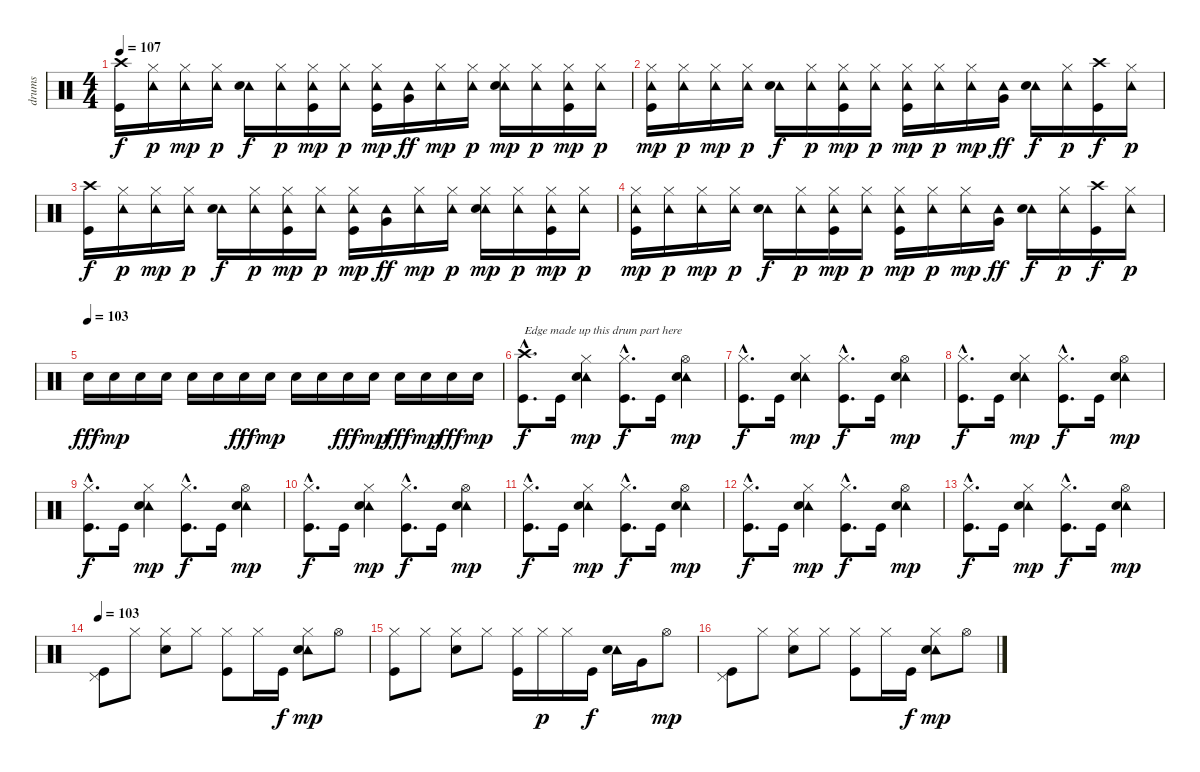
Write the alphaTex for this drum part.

\track ("drums" "drums") {instrument percussion}
\staff {score}
\articulation defaults
\ts (4 4)
\tempo 107
\clef neutral
\ks c
("Crash high (hit)" "Kick (hit)").16{dy f} ("Tambourine (hit)" "Hi-Hat (closed)").16{dy p} ("Tambourine (hit)" "Hi-Hat (closed)").16{dy mp} ("Tambourine (hit)" "Hi-Hat (closed)").16{dy p} ("Tambourine (hit)" "Electric Snare (hit)").16{dy f} ("Tambourine (hit)" "Hi-Hat (closed)").16{dy p} ("Tambourine (hit)" "Hi-Hat (closed)" "Kick (hit)").16{dy mp} ("Tambourine (hit)" "Hi-Hat (closed)").16{dy p} ("Tambourine (hit)" "Hi-Hat (closed)" "Kick (hit)").16{dy mp} ("Tambourine (hit)" "Very Low Tom (hit)").16{dy ff} ("Tambourine (hit)" "Hi-Hat (closed)").16{dy mp} ("Tambourine (hit)" "Hi-Hat (closed)").16{dy p} ("Tambourine (hit)" "Hi-Hat (closed)" "Electric Snare (hit)").16{dy mp} ("Tambourine (hit)" "Hi-Hat (closed)").16{dy p} ("Tambourine (hit)" "Hi-Hat (closed)" "Kick (hit)").16{dy mp} ("Tambourine (hit)" "Hi-Hat (closed)").16{dy p} |
("Tambourine (hit)" "Hi-Hat (closed)" "Kick (hit)").16{dy mp} ("Tambourine (hit)" "Hi-Hat (closed)").16{dy p} ("Tambourine (hit)" "Hi-Hat (closed)").16{dy mp} ("Tambourine (hit)" "Hi-Hat (closed)").16{dy p} ("Tambourine (hit)" "Electric Snare (hit)").16{dy f} ("Tambourine (hit)" "Hi-Hat (closed)").16{dy p} ("Tambourine (hit)" "Hi-Hat (closed)" "Kick (hit)").16{dy mp} ("Tambourine (hit)" "Hi-Hat (closed)").16{dy p} ("Tambourine (hit)" "Hi-Hat (closed)" "Kick (hit)").16{dy mp} ("Tambourine (hit)" "Hi-Hat (closed)").16{dy p} ("Tambourine (hit)" "Hi-Hat (closed)").16{dy mp} ("Tambourine (hit)" "Very Low Tom (hit)").16{dy ff} ("Tambourine (hit)" "Electric Snare (hit)").16{dy f} ("Tambourine (hit)" "Hi-Hat (closed)").16{dy p} ("Crash high (hit)" "Kick (hit)").16{dy f} ("Tambourine (hit)" "Hi-Hat (closed)").16{dy p} |
("Crash high (hit)" "Kick (hit)").16{dy f} ("Tambourine (hit)" "Hi-Hat (closed)").16{dy p} ("Tambourine (hit)" "Hi-Hat (closed)").16{dy mp} ("Tambourine (hit)" "Hi-Hat (closed)").16{dy p} ("Tambourine (hit)" "Electric Snare (hit)").16{dy f} ("Tambourine (hit)" "Hi-Hat (closed)").16{dy p} ("Tambourine (hit)" "Hi-Hat (closed)" "Kick (hit)").16{dy mp} ("Tambourine (hit)" "Hi-Hat (closed)").16{dy p} ("Tambourine (hit)" "Hi-Hat (closed)" "Kick (hit)").16{dy mp} ("Tambourine (hit)" "Very Low Tom (hit)").16{dy ff} ("Tambourine (hit)" "Hi-Hat (closed)").16{dy mp} ("Tambourine (hit)" "Hi-Hat (closed)").16{dy p} ("Tambourine (hit)" "Hi-Hat (closed)" "Electric Snare (hit)").16{dy mp} ("Tambourine (hit)" "Hi-Hat (closed)").16{dy p} ("Tambourine (hit)" "Hi-Hat (closed)" "Kick (hit)").16{dy mp} ("Tambourine (hit)" "Hi-Hat (closed)").16{dy p} |
("Tambourine (hit)" "Hi-Hat (closed)" "Kick (hit)").16{dy mp} ("Tambourine (hit)" "Hi-Hat (closed)").16{dy p} ("Tambourine (hit)" "Hi-Hat (closed)").16{dy mp} ("Tambourine (hit)" "Hi-Hat (closed)").16{dy p} ("Tambourine (hit)" "Electric Snare (hit)").16{dy f} ("Tambourine (hit)" "Hi-Hat (closed)").16{dy p} ("Tambourine (hit)" "Hi-Hat (closed)" "Kick (hit)").16{dy mp} ("Tambourine (hit)" "Hi-Hat (closed)").16{dy p} ("Tambourine (hit)" "Hi-Hat (closed)" "Kick (hit)").16{dy mp} ("Tambourine (hit)" "Hi-Hat (closed)").16{dy p} ("Tambourine (hit)" "Hi-Hat (closed)").16{dy mp} ("Tambourine (hit)" "Very Low Tom (hit)").16{dy ff} ("Tambourine (hit)" "Electric Snare (hit)").16{dy f} ("Tambourine (hit)" "Hi-Hat (closed)").16{dy p} ("Crash high (hit)" "Kick (hit)").16{dy f} ("Tambourine (hit)" "Hi-Hat (closed)").16{dy p} |
\tempo (103)
"Electric Snare (hit)".16{dy fff} "Electric Snare (hit)".16{dy mp} "Electric Snare (hit)".16 "Electric Snare (hit)".16 "Electric Snare (hit)".16 "Electric Snare (hit)".16 "Electric Snare (hit)".16{dy fff} "Electric Snare (hit)".16{dy mp} "Electric Snare (hit)".16 "Electric Snare (hit)".16 "Electric Snare (hit)".16{dy fff} "Electric Snare (hit)".16{dy mp} "Electric Snare (hit)".16{dy fff} "Electric Snare (hit)".16{dy mp} "Electric Snare (hit)".16{dy fff} "Electric Snare (hit)".16{dy mp} |
("Crash high (hit)"{hac} "Kick (hit)"{hac}).8{d txt "Edge made up this drum part here" dy f} "Kick (hit)".16 ("Tambourine (hit)" "Hi-Hat (closed)" "Electric Snare (hit)").4{dy mp} ("Hi-Hat (closed)"{hac} "Kick (hit)"{hac}).8{d dy f} "Kick (hit)".16 ("Tambourine (hit)" "Hi-Hat (open)" "Electric Snare (hit)").4{dy mp} |
("Hi-Hat (closed)"{hac} "Kick (hit)"{hac}).8{d dy f} "Kick (hit)".16 ("Tambourine (hit)" "Hi-Hat (closed)" "Electric Snare (hit)").4{dy mp} ("Hi-Hat (closed)"{hac} "Kick (hit)"{hac}).8{d dy f} "Kick (hit)".16 ("Tambourine (hit)" "Hi-Hat (open)" "Electric Snare (hit)").4{dy mp} |
("Hi-Hat (closed)"{hac} "Kick (hit)"{hac}).8{d dy f} "Kick (hit)".16 ("Tambourine (hit)" "Hi-Hat (closed)" "Electric Snare (hit)").4{dy mp} ("Hi-Hat (closed)"{hac} "Kick (hit)"{hac}).8{d dy f} "Kick (hit)".16 ("Tambourine (hit)" "Hi-Hat (open)" "Electric Snare (hit)").4{dy mp} |
("Hi-Hat (closed)"{hac} "Kick (hit)"{hac}).8{d dy f} "Kick (hit)".16 ("Tambourine (hit)" "Hi-Hat (closed)" "Electric Snare (hit)").4{dy mp} ("Hi-Hat (closed)"{hac} "Kick (hit)"{hac}).8{d dy f} "Kick (hit)".16 ("Tambourine (hit)" "Hi-Hat (open)" "Electric Snare (hit)").4{dy mp} |
("Hi-Hat (closed)"{hac} "Kick (hit)"{hac}).8{d dy f} "Kick (hit)".16 ("Tambourine (hit)" "Hi-Hat (closed)" "Electric Snare (hit)").4{dy mp} ("Hi-Hat (closed)"{hac} "Kick (hit)"{hac}).8{d dy f} "Kick (hit)".16 ("Tambourine (hit)" "Hi-Hat (open)" "Electric Snare (hit)").4{dy mp} |
("Hi-Hat (closed)"{hac} "Kick (hit)"{hac}).8{d dy f} "Kick (hit)".16 ("Tambourine (hit)" "Hi-Hat (closed)" "Electric Snare (hit)").4{dy mp} ("Hi-Hat (closed)"{hac} "Kick (hit)"{hac}).8{d dy f} "Kick (hit)".16 ("Tambourine (hit)" "Hi-Hat (open)" "Electric Snare (hit)").4{dy mp} |
("Hi-Hat (closed)"{hac} "Kick (hit)"{hac}).8{d dy f} "Kick (hit)".16 ("Tambourine (hit)" "Hi-Hat (closed)" "Electric Snare (hit)").4{dy mp} ("Hi-Hat (closed)"{hac} "Kick (hit)"{hac}).8{d dy f} "Kick (hit)".16 ("Tambourine (hit)" "Hi-Hat (open)" "Electric Snare (hit)").4{dy mp} |
("Hi-Hat (closed)"{hac} "Kick (hit)"{hac}).8{d dy f} "Kick (hit)".16 ("Tambourine (hit)" "Hi-Hat (closed)" "Electric Snare (hit)").4{dy mp} ("Hi-Hat (closed)"{hac} "Kick (hit)"{hac}).8{d dy f} "Kick (hit)".16 ("Tambourine (hit)" "Hi-Hat (open)" "Electric Snare (hit)").4{dy mp} |
\tempo 103
("Pedal Hi-Hat (hit)" "Kick (hit)").8 "Hi-Hat (closed)".8 ("Hi-Hat (closed)" "Electric Snare (hit)").8 "Hi-Hat (closed)".8 ("Hi-Hat (closed)" "Kick (hit)").8 "Hi-Hat (closed)".16 "Kick (hit)".16{dy f} ("Tambourine (hit)" "Hi-Hat (closed)" "Electric Snare (hit)").8{dy mp} "Hi-Hat (open)".8 |
("Hi-Hat (closed)" "Kick (hit)").8 "Hi-Hat (closed)".8 ("Hi-Hat (closed)" "Electric Snare (hit)").8 "Hi-Hat (closed)".8 ("Hi-Hat (closed)" "Kick (hit)").16 "Hi-Hat (closed)".16{dy p} "Hi-Hat (closed)".16 "Kick (hit)".16{dy f} ("Tambourine (hit)" "Electric Snare (hit)").16 "Very Low Tom (hit)".16 "Hi-Hat (open)".8{dy mp} |
("Pedal Hi-Hat (hit)" "Kick (hit)").8 "Hi-Hat (closed)".8 ("Hi-Hat (closed)" "Electric Snare (hit)").8 "Hi-Hat (closed)".8 ("Hi-Hat (closed)" "Kick (hit)").8 "Hi-Hat (closed)".16 "Kick (hit)".16{dy f} ("Tambourine (hit)" "Hi-Hat (closed)" "Electric Snare (hit)").8{dy mp} "Hi-Hat (open)".8
